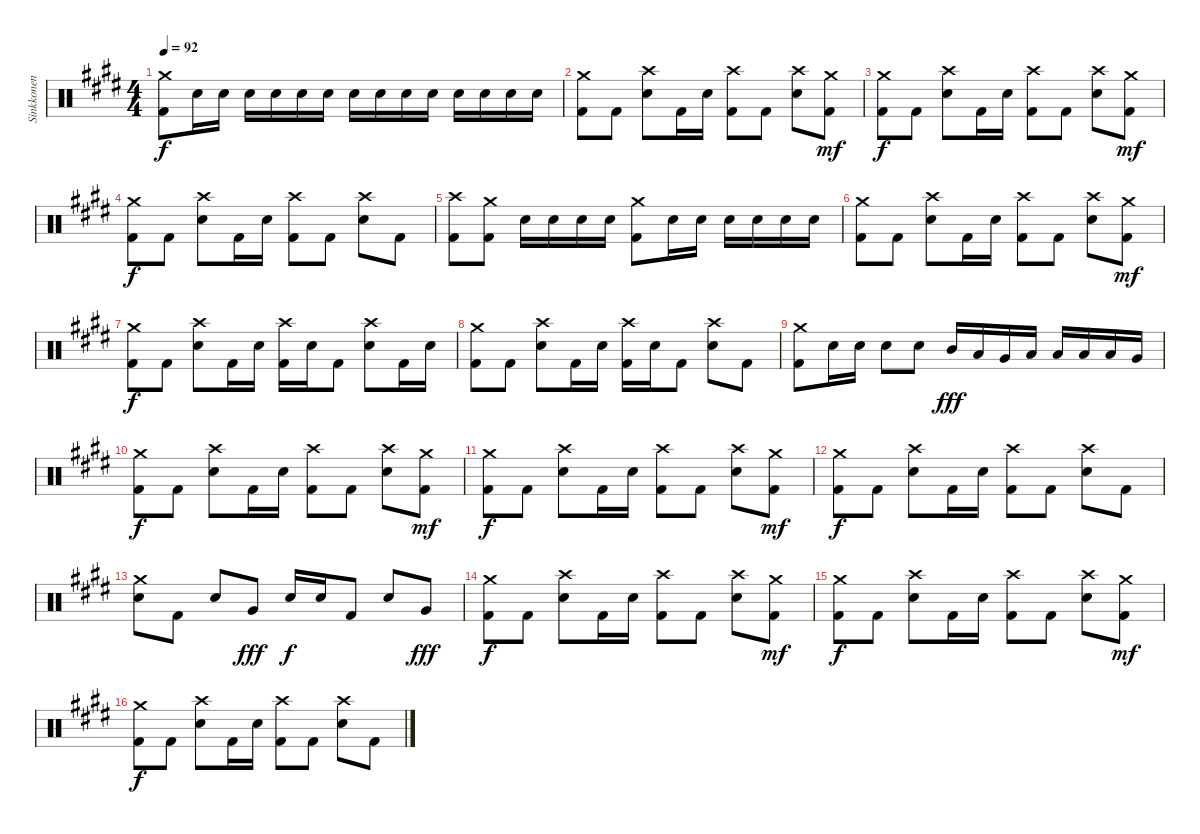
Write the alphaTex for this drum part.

\track ("Sinkkonen" "Sinkkonen") {instrument percussion}
\staff {score}
\articulation defaults
\ts (4 4)
\tempo 92
\clef neutral
\ks c#minor
("Kick (hit) 2" "Crash medium (hit)").8{dy f} "Snare (hit) 2".16 "Snare (hit) 2".16 "Snare (hit) 2".16 "Snare (hit) 2".16 "Snare (hit) 2".16 "Snare (hit) 2".16 "Snare (hit) 2".16 "Snare (hit) 2".16 "Snare (hit) 2".16 "Snare (hit) 2".16 "Snare (hit) 2".16 "Snare (hit) 2".16 "Snare (hit) 2".16 "Snare (hit) 2".16 |
("Kick (hit) 2" "Crash medium (hit)").8 "Kick (hit) 2".8 ("Crash high (hit)" "Snare (hit) 2").8 "Kick (hit) 2".16 "Snare (hit) 2".16 ("Kick (hit) 2" "Crash high (hit)").8 "Kick (hit) 2".8 ("Crash high (hit)" "Snare (hit) 2").8 ("Kick (hit) 2" "Crash medium (hit)").8{dy mf} |
("Kick (hit) 2" "Crash medium (hit)").8{dy f} "Kick (hit) 2".8 ("Crash high (hit)" "Snare (hit) 2").8 "Kick (hit) 2".16 "Snare (hit) 2".16 ("Kick (hit) 2" "Crash high (hit)").8 "Kick (hit) 2".8 ("Crash high (hit)" "Snare (hit) 2").8 ("Kick (hit) 2" "Crash medium (hit)").8{dy mf} |
("Kick (hit) 2" "Crash medium (hit)").8{dy f} "Kick (hit) 2".8 ("Crash high (hit)" "Snare (hit) 2").8 "Kick (hit) 2".16 "Snare (hit) 2".16 ("Kick (hit) 2" "Crash high (hit)").8 "Kick (hit) 2".8 ("Crash high (hit)" "Snare (hit) 2").8 "Kick (hit) 2".8 |
("Kick (hit) 2" "Crash high (hit)").8 ("Kick (hit) 2" "Crash medium (hit)").8 "Snare (hit) 2".16 "Snare (hit) 2".16 "Snare (hit) 2".16 "Snare (hit) 2".16 ("Kick (hit) 2" "Crash medium (hit)").8 "Snare (hit) 2".16 "Snare (hit) 2".16 "Snare (hit) 2".16 "Snare (hit) 2".16 "Snare (hit) 2".16 "Snare (hit) 2".16 |
("Kick (hit) 2" "Crash medium (hit)").8 "Kick (hit) 2".8 ("Crash high (hit)" "Snare (hit) 2").8 "Kick (hit) 2".16 "Snare (hit) 2".16 ("Kick (hit) 2" "Crash high (hit)").8 "Kick (hit) 2".8 ("Crash high (hit)" "Snare (hit) 2").8 ("Kick (hit) 2" "Crash medium (hit)").8{dy mf} |
("Kick (hit) 2" "Crash medium (hit)").8{dy f} "Kick (hit) 2".8 ("Crash high (hit)" "Snare (hit) 2").8 "Kick (hit) 2".16 "Snare (hit) 2".16 ("Kick (hit) 2" "Crash high (hit)").16 "Snare (hit) 2".16 "Kick (hit) 2".8 ("Crash high (hit)" "Snare (hit) 2").8 "Kick (hit) 2".16 "Snare (hit) 2".16 |
("Kick (hit) 2" "Crash medium (hit)").8 "Kick (hit) 2".8 ("Crash high (hit)" "Snare (hit) 2").8 "Kick (hit) 2".16 "Snare (hit) 2".16 ("Kick (hit) 2" "Crash high (hit)").16 "Snare (hit) 2".16 "Kick (hit) 2".8 ("Crash high (hit)" "Snare (hit) 2").8 "Kick (hit) 2".8 |
("Kick (hit) 2" "Crash medium (hit)").8 "Snare (hit) 2".16 "Snare (hit) 2".16 "Snare (hit) 2".8 "Snare (hit) 2".8 "Mid Tom (hit)".16{dy fff} "Low Tom (hit)".16 "Very Low Tom (hit)".16 "Low Floor Tom (hit)".16 "Low Floor Tom (hit)".16 "Low Floor Tom (hit)".16 "Low Floor Tom (hit)".16 "Very Low Tom (hit)".16 |
("Kick (hit) 2" "Crash medium (hit)").8{dy f} "Kick (hit) 2".8 ("Crash high (hit)" "Snare (hit) 2").8 "Kick (hit) 2".16 "Snare (hit) 2".16 ("Kick (hit) 2" "Crash high (hit)").8 "Kick (hit) 2".8 ("Crash high (hit)" "Snare (hit) 2").8 ("Kick (hit) 2" "Crash medium (hit)").8{dy mf} |
("Kick (hit) 2" "Crash medium (hit)").8{dy f} "Kick (hit) 2".8 ("Crash high (hit)" "Snare (hit) 2").8 "Kick (hit) 2".16 "Snare (hit) 2".16 ("Kick (hit) 2" "Crash high (hit)").8 "Kick (hit) 2".8 ("Crash high (hit)" "Snare (hit) 2").8 ("Kick (hit) 2" "Crash medium (hit)").8{dy mf} |
("Kick (hit) 2" "Crash medium (hit)").8{dy f} "Kick (hit) 2".8 ("Crash high (hit)" "Snare (hit) 2").8 "Kick (hit) 2".16 "Snare (hit) 2".16 ("Kick (hit) 2" "Crash high (hit)").8 "Kick (hit) 2".8 ("Crash high (hit)" "Snare (hit) 2").8 "Kick (hit) 2".8 |
("Crash medium (hit)" "Snare (hit) 2").8 "Kick (hit) 2".8 "Snare (hit) 2".8 "Very Low Tom (hit)".8{dy fff} "Snare (hit) 2".16{dy f} "Snare (hit) 2".16 "Kick (hit) 2".8 "Snare (hit) 2".8 "Very Low Tom (hit)".8{dy fff} |
("Kick (hit) 2" "Crash medium (hit)").8{dy f} "Kick (hit) 2".8 ("Crash high (hit)" "Snare (hit) 2").8 "Kick (hit) 2".16 "Snare (hit) 2".16 ("Kick (hit) 2" "Crash high (hit)").8 "Kick (hit) 2".8 ("Crash high (hit)" "Snare (hit) 2").8 ("Kick (hit) 2" "Crash medium (hit)").8{dy mf} |
("Kick (hit) 2" "Crash medium (hit)").8{dy f} "Kick (hit) 2".8 ("Crash high (hit)" "Snare (hit) 2").8 "Kick (hit) 2".16 "Snare (hit) 2".16 ("Kick (hit) 2" "Crash high (hit)").8 "Kick (hit) 2".8 ("Crash high (hit)" "Snare (hit) 2").8 ("Kick (hit) 2" "Crash medium (hit)").8{dy mf} |
("Kick (hit) 2" "Crash medium (hit)").8{dy f} "Kick (hit) 2".8 ("Crash high (hit)" "Snare (hit) 2").8 "Kick (hit) 2".16 "Snare (hit) 2".16 ("Kick (hit) 2" "Crash high (hit)").8 "Kick (hit) 2".8 ("Crash high (hit)" "Snare (hit) 2").8 "Kick (hit) 2".8
